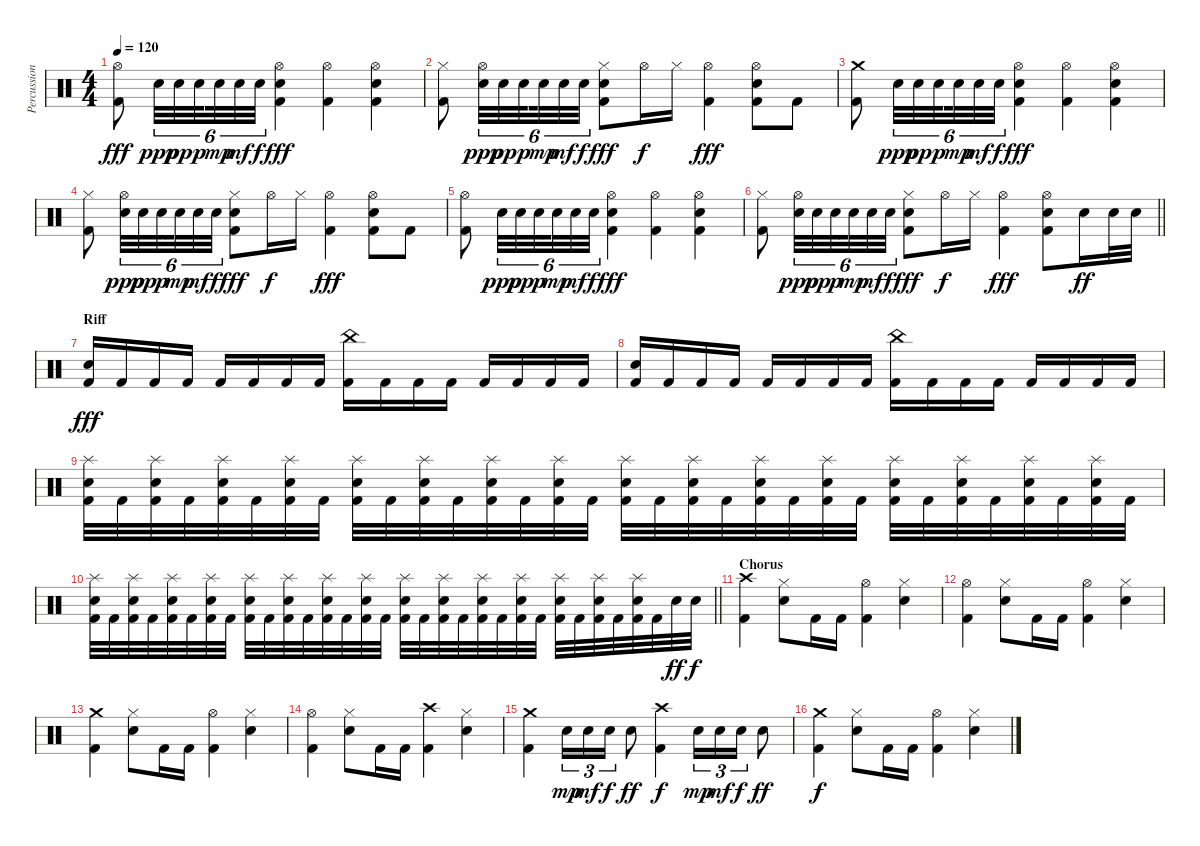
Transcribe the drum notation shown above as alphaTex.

\track ("Percussion" "Percussion") {instrument percussion}
\staff {score}
\articulation defaults
\ts (4 4)
\tempo 120
\clef neutral
\ks c
("Hi-Hat (open)" "Kick (hit) 2").8{dy fff} "Electric Snare (hit)".32{tu (6 4) dy ppp} "Electric Snare (hit)".32{tu (6 4) dy pp} "Electric Snare (hit)".32{tu (6 4) dy p beam splitsecondary} "Electric Snare (hit)".32{tu (6 4) dy mp} "Electric Snare (hit)".32{tu (6 4) dy mf} "Electric Snare (hit)".32{tu (6 4) dy f} ("Hi-Hat (open)" "Electric Snare (hit)" "Kick (hit) 2").4{dy fff} ("Hi-Hat (open)" "Kick (hit) 2").4 ("Hi-Hat (open)" "Electric Snare (hit)" "Kick (hit) 2").4 |
("Hi-Hat (closed)" "Kick (hit) 2").8 ("Hi-Hat (open)" "Electric Snare (hit)").32{tu (6 4) dy ppp} "Electric Snare (hit)".32{tu (6 4) dy pp} "Electric Snare (hit)".32{tu (6 4) dy p beam splitsecondary} "Electric Snare (hit)".32{tu (6 4) dy mp} "Electric Snare (hit)".32{tu (6 4) dy mf} "Electric Snare (hit)".32{tu (6 4) dy f} ("Hi-Hat (closed)" "Electric Snare (hit)" "Kick (hit) 2").8{dy fff} "Hi-Hat (open)".16{dy f} "Hi-Hat (closed)".16 ("Hi-Hat (open)" "Kick (hit) 2").4{dy fff} ("Hi-Hat (open)" "Electric Snare (hit)" "Kick (hit) 2").8 "Kick (hit) 2".8 |
("Crash medium (hit)" "Kick (hit) 2").8 "Electric Snare (hit)".32{tu (6 4) dy ppp} "Electric Snare (hit)".32{tu (6 4) dy pp} "Electric Snare (hit)".32{tu (6 4) dy p beam splitsecondary} "Electric Snare (hit)".32{tu (6 4) dy mp} "Electric Snare (hit)".32{tu (6 4) dy mf} "Electric Snare (hit)".32{tu (6 4) dy f} ("Hi-Hat (open)" "Electric Snare (hit)" "Kick (hit) 2").4{dy fff} ("Hi-Hat (open)" "Kick (hit) 2").4 ("Hi-Hat (open)" "Electric Snare (hit)" "Kick (hit) 2").4 |
("Hi-Hat (closed)" "Kick (hit) 2").8 ("Hi-Hat (open)" "Electric Snare (hit)").32{tu (6 4) dy ppp} "Electric Snare (hit)".32{tu (6 4) dy pp} "Electric Snare (hit)".32{tu (6 4) dy p beam splitsecondary} "Electric Snare (hit)".32{tu (6 4) dy mp} "Electric Snare (hit)".32{tu (6 4) dy mf} "Electric Snare (hit)".32{tu (6 4) dy f} ("Hi-Hat (closed)" "Electric Snare (hit)" "Kick (hit) 2").8{dy fff} "Hi-Hat (open)".16{dy f} "Hi-Hat (closed)".16 ("Hi-Hat (open)" "Kick (hit) 2").4{dy fff} ("Hi-Hat (open)" "Electric Snare (hit)" "Kick (hit) 2").8 "Kick (hit) 2".8 |
("Hi-Hat (open)" "Kick (hit) 2").8 "Electric Snare (hit)".32{tu (6 4) dy ppp} "Electric Snare (hit)".32{tu (6 4) dy pp} "Electric Snare (hit)".32{tu (6 4) dy p beam splitsecondary} "Electric Snare (hit)".32{tu (6 4) dy mp} "Electric Snare (hit)".32{tu (6 4) dy mf} "Electric Snare (hit)".32{tu (6 4) dy f} ("Hi-Hat (open)" "Electric Snare (hit)" "Kick (hit) 2").4{dy fff} ("Hi-Hat (open)" "Kick (hit) 2").4 ("Hi-Hat (open)" "Electric Snare (hit)" "Kick (hit) 2").4 |
\barLineRight lightlight
("Hi-Hat (closed)" "Kick (hit) 2").8 ("Hi-Hat (open)" "Electric Snare (hit)").32{tu (6 4) dy ppp} "Electric Snare (hit)".32{tu (6 4) dy pp} "Electric Snare (hit)".32{tu (6 4) dy p beam splitsecondary} "Electric Snare (hit)".32{tu (6 4) dy mp} "Electric Snare (hit)".32{tu (6 4) dy mf} "Electric Snare (hit)".32{tu (6 4) dy f} ("Hi-Hat (closed)" "Electric Snare (hit)" "Kick (hit) 2").8{dy fff} "Hi-Hat (open)".16{dy f} "Hi-Hat (closed)".16 ("Hi-Hat (open)" "Kick (hit) 2").4{dy fff} ("Hi-Hat (open)" "Electric Snare (hit)" "Kick (hit) 2").8 "Electric Snare (hit)".16{dy ff} "Electric Snare (hit)".32 "Electric Snare (hit)".32 |
\section ("" "Riff")
("Electric Snare (hit)" "Kick (hit) 2").16{dy fff} "Kick (hit) 2".16 "Kick (hit) 2".16 "Kick (hit) 2".16 "Kick (hit) 2".16 "Kick (hit) 2".16 "Kick (hit) 2".16 "Kick (hit) 2".16 ("China (hit)" "Kick (hit) 2").16 "Kick (hit) 2".16 "Kick (hit) 2".16 "Kick (hit) 2".16 "Kick (hit) 2".16 "Kick (hit) 2".16 "Kick (hit) 2".16 "Kick (hit) 2".16 |
("Electric Snare (hit)" "Kick (hit) 2").16 "Kick (hit) 2".16 "Kick (hit) 2".16 "Kick (hit) 2".16 "Kick (hit) 2".16 "Kick (hit) 2".16 "Kick (hit) 2".16 "Kick (hit) 2".16 ("China (hit)" "Kick (hit) 2").16 "Kick (hit) 2".16 "Kick (hit) 2".16 "Kick (hit) 2".16 "Kick (hit) 2".16 "Kick (hit) 2".16 "Kick (hit) 2".16 "Kick (hit) 2".16 |
("Splash (hit)" "Electric Snare (hit)" "Kick (hit) 2").32 "Kick (hit) 2".32 ("Splash (hit)" "Electric Snare (hit)" "Kick (hit) 2").32 "Kick (hit) 2".32 ("Splash (hit)" "Electric Snare (hit)" "Kick (hit) 2").32 "Kick (hit) 2".32 ("Splash (hit)" "Electric Snare (hit)" "Kick (hit) 2").32 "Kick (hit) 2".32 ("Splash (hit)" "Electric Snare (hit)" "Kick (hit) 2").32 "Kick (hit) 2".32 ("Splash (hit)" "Electric Snare (hit)" "Kick (hit) 2").32 "Kick (hit) 2".32 ("Splash (hit)" "Electric Snare (hit)" "Kick (hit) 2").32 "Kick (hit) 2".32 ("Splash (hit)" "Electric Snare (hit)" "Kick (hit) 2").32 "Kick (hit) 2".32 ("Splash (hit)" "Electric Snare (hit)" "Kick (hit) 2").32 "Kick (hit) 2".32 ("Splash (hit)" "Electric Snare (hit)" "Kick (hit) 2").32 "Kick (hit) 2".32 ("Splash (hit)" "Electric Snare (hit)" "Kick (hit) 2").32 "Kick (hit) 2".32 ("Splash (hit)" "Electric Snare (hit)" "Kick (hit) 2").32 "Kick (hit) 2".32 ("Splash (hit)" "Electric Snare (hit)" "Kick (hit) 2").32 "Kick (hit) 2".32 ("Splash (hit)" "Electric Snare (hit)" "Kick (hit) 2").32 "Kick (hit) 2".32 ("Splash (hit)" "Electric Snare (hit)" "Kick (hit) 2").32 "Kick (hit) 2".32 ("Splash (hit)" "Electric Snare (hit)" "Kick (hit) 2").32 "Kick (hit) 2".32 |
\barLineRight lightlight
("Splash (hit)" "Electric Snare (hit)" "Kick (hit) 2").32 "Kick (hit) 2".32 ("Splash (hit)" "Electric Snare (hit)" "Kick (hit) 2").32 "Kick (hit) 2".32 ("Splash (hit)" "Electric Snare (hit)" "Kick (hit) 2").32 "Kick (hit) 2".32 ("Splash (hit)" "Electric Snare (hit)" "Kick (hit) 2").32 "Kick (hit) 2".32 ("Splash (hit)" "Electric Snare (hit)" "Kick (hit) 2").32 "Kick (hit) 2".32 ("Splash (hit)" "Electric Snare (hit)" "Kick (hit) 2").32 "Kick (hit) 2".32 ("Splash (hit)" "Electric Snare (hit)" "Kick (hit) 2").32 "Kick (hit) 2".32 ("Splash (hit)" "Electric Snare (hit)" "Kick (hit) 2").32 "Kick (hit) 2".32 ("Splash (hit)" "Electric Snare (hit)" "Kick (hit) 2").32 "Kick (hit) 2".32 ("Splash (hit)" "Electric Snare (hit)" "Kick (hit) 2").32 "Kick (hit) 2".32 ("Splash (hit)" "Electric Snare (hit)" "Kick (hit) 2").32 "Kick (hit) 2".32 ("Splash (hit)" "Electric Snare (hit)" "Kick (hit) 2").32 "Kick (hit) 2".32 ("Splash (hit)" "Electric Snare (hit)" "Kick (hit) 2").32 "Kick (hit) 2".32 ("Splash (hit)" "Electric Snare (hit)" "Kick (hit) 2").32 "Kick (hit) 2".32 ("Splash (hit)" "Electric Snare (hit)" "Kick (hit) 2").32 "Kick (hit) 2".32 "Electric Snare (hit)".32{dy ff} "Electric Snare (hit)".32{dy f} |
\section ("" "Chorus")
("Crash high (hit)" "Kick (hit) 2").4 ("Hi-Hat (closed)" "Electric Snare (hit)").8 "Kick (hit) 2".16 "Kick (hit) 2".16 ("Hi-Hat (open)" "Kick (hit) 2").4 ("Hi-Hat (closed)" "Electric Snare (hit)").4 |
("Hi-Hat (open)" "Kick (hit) 2").4 ("Hi-Hat (closed)" "Electric Snare (hit)").8 "Kick (hit) 2".16 "Kick (hit) 2".16 ("Hi-Hat (open)" "Kick (hit) 2").4 ("Hi-Hat (closed)" "Electric Snare (hit)").4 |
("Crash medium (hit)" "Kick (hit) 2").4 ("Hi-Hat (closed)" "Electric Snare (hit)").8 "Kick (hit) 2".16 "Kick (hit) 2".16 ("Hi-Hat (open)" "Kick (hit) 2").4 ("Hi-Hat (closed)" "Electric Snare (hit)").4 |
("Hi-Hat (open)" "Kick (hit) 2").4 ("Hi-Hat (closed)" "Electric Snare (hit)").8 "Kick (hit) 2".16 "Kick (hit) 2".16 ("Crash high (hit)" "Kick (hit) 2").4 ("Hi-Hat (closed)" "Electric Snare (hit)").4 |
("Crash medium (hit)" "Kick (hit) 2").4 "Electric Snare (hit)".16{tu (3 2) dy mp} "Electric Snare (hit)".16{tu (3 2) dy mf} "Electric Snare (hit)".16{tu (3 2) dy f} "Electric Snare (hit)".8{dy ff} ("Crash high (hit)" "Kick (hit) 2").4{dy f} "Electric Snare (hit)".16{tu (3 2) dy mp} "Electric Snare (hit)".16{tu (3 2) dy mf} "Electric Snare (hit)".16{tu (3 2) dy f} "Electric Snare (hit)".8{dy ff} |
("Crash medium (hit)" "Kick (hit) 2").4{dy f} ("Hi-Hat (closed)" "Electric Snare (hit)").8 "Kick (hit) 2".16 "Kick (hit) 2".16 ("Hi-Hat (open)" "Kick (hit) 2").4 ("Hi-Hat (closed)" "Electric Snare (hit)").4
